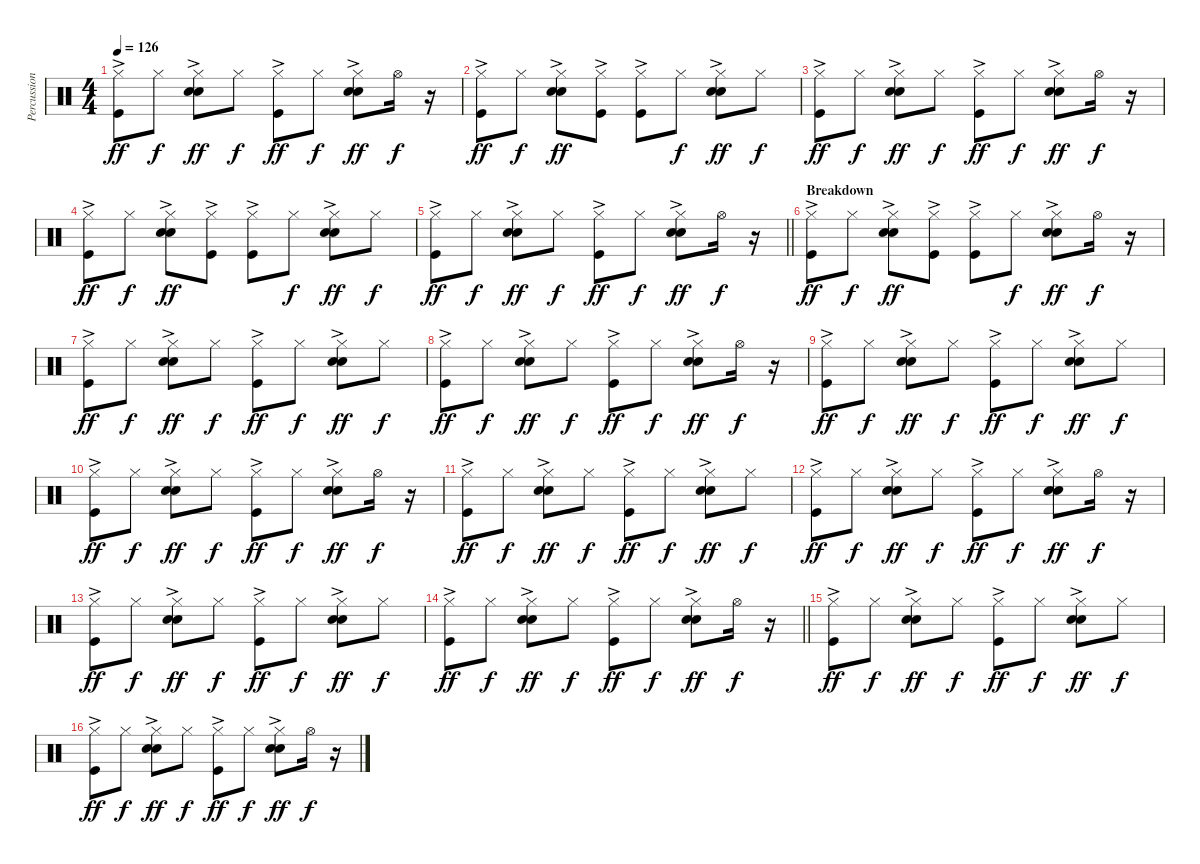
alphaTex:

\track ("Percussion" "Percussion") {instrument percussion}
\staff {score}
\articulation defaults
\ts (4 4)
\tempo 126
\clef neutral
\ks c
("Hi-Hat (closed)" "Kick (hit)"{ac}).8{dy ff} "Hi-Hat (closed)".8{dy f} ("Hi-Hat (closed)" "Hand Clap (hit)"{ac} "Snare (hit) 2"{ac}).8{dy ff} "Hi-Hat (closed)".8{dy f} ("Hi-Hat (closed)" "Kick (hit)"{ac}).8{dy ff} "Hi-Hat (closed)".8{dy f} ("Hi-Hat (closed)" "Hand Clap (hit)"{ac} "Snare (hit) 2"{ac}).8{dy ff} "Hi-Hat (open)".16{dy f} r.16 |
("Hi-Hat (closed)" "Kick (hit)"{ac}).8{dy ff} "Hi-Hat (closed)".8{dy f} ("Hi-Hat (closed)" "Hand Clap (hit)"{ac} "Snare (hit) 2"{ac}).8{dy ff} ("Hi-Hat (closed)" "Kick (hit)"{ac}).8 ("Hi-Hat (closed)" "Kick (hit)"{ac}).8 "Hi-Hat (closed)".8{dy f} ("Hi-Hat (closed)" "Hand Clap (hit)"{ac} "Snare (hit) 2"{ac}).8{dy ff} "Hi-Hat (closed)".8{dy f} |
("Hi-Hat (closed)" "Kick (hit)"{ac}).8{dy ff} "Hi-Hat (closed)".8{dy f} ("Hi-Hat (closed)" "Hand Clap (hit)"{ac} "Snare (hit) 2"{ac}).8{dy ff} "Hi-Hat (closed)".8{dy f} ("Hi-Hat (closed)" "Kick (hit)"{ac}).8{dy ff} "Hi-Hat (closed)".8{dy f} ("Hi-Hat (closed)" "Hand Clap (hit)"{ac} "Snare (hit) 2"{ac}).8{dy ff} "Hi-Hat (open)".16{dy f} r.16 |
("Hi-Hat (closed)" "Kick (hit)"{ac}).8{dy ff} "Hi-Hat (closed)".8{dy f} ("Hi-Hat (closed)" "Hand Clap (hit)"{ac} "Snare (hit) 2"{ac}).8{dy ff} ("Hi-Hat (closed)" "Kick (hit)"{ac}).8 ("Hi-Hat (closed)" "Kick (hit)"{ac}).8 "Hi-Hat (closed)".8{dy f} ("Hi-Hat (closed)" "Hand Clap (hit)"{ac} "Snare (hit) 2"{ac}).8{dy ff} "Hi-Hat (closed)".8{dy f} |
\barLineRight lightlight
("Hi-Hat (closed)" "Kick (hit)"{ac}).8{dy ff} "Hi-Hat (closed)".8{dy f} ("Hi-Hat (closed)" "Hand Clap (hit)"{ac} "Snare (hit) 2"{ac}).8{dy ff} "Hi-Hat (closed)".8{dy f} ("Hi-Hat (closed)" "Kick (hit)"{ac}).8{dy ff} "Hi-Hat (closed)".8{dy f} ("Hi-Hat (closed)" "Hand Clap (hit)"{ac} "Snare (hit) 2"{ac}).8{dy ff} "Hi-Hat (open)".16{dy f} r.16 |
\section ("" "Breakdown")
("Hi-Hat (closed)" "Kick (hit)"{ac}).8{dy ff} "Hi-Hat (closed)".8{dy f} ("Hi-Hat (closed)" "Hand Clap (hit)"{ac} "Snare (hit) 2"{ac}).8{dy ff} ("Hi-Hat (closed)" "Kick (hit)"{ac}).8 ("Hi-Hat (closed)" "Kick (hit)"{ac}).8 "Hi-Hat (closed)".8{dy f} ("Hi-Hat (closed)" "Hand Clap (hit)"{ac} "Snare (hit) 2"{ac}).8{dy ff} "Hi-Hat (open)".16{dy f} r.16 |
("Hi-Hat (closed)" "Kick (hit)"{ac}).8{dy ff} "Hi-Hat (closed)".8{dy f} ("Hi-Hat (closed)" "Hand Clap (hit)"{ac} "Snare (hit) 2").8{dy ff} "Hi-Hat (closed)".8{dy f} ("Hi-Hat (closed)" "Kick (hit)"{ac}).8{dy ff} "Hi-Hat (closed)".8{dy f} ("Hi-Hat (closed)" "Hand Clap (hit)"{ac} "Snare (hit) 2").8{dy ff} "Hi-Hat (closed)".8{dy f} |
("Hi-Hat (closed)" "Kick (hit)"{ac}).8{dy ff} "Hi-Hat (closed)".8{dy f} ("Hi-Hat (closed)" "Hand Clap (hit)"{ac} "Snare (hit) 2").8{dy ff} "Hi-Hat (closed)".8{dy f} ("Hi-Hat (closed)" "Kick (hit)"{ac}).8{dy ff} "Hi-Hat (closed)".8{dy f} ("Hi-Hat (closed)" "Hand Clap (hit)"{ac} "Snare (hit) 2").8{dy ff} "Hi-Hat (open)".16{dy f} r.16 |
("Hi-Hat (closed)" "Kick (hit)"{ac}).8{dy ff} "Hi-Hat (closed)".8{dy f} ("Hi-Hat (closed)" "Hand Clap (hit)"{ac} "Snare (hit) 2").8{dy ff} "Hi-Hat (closed)".8{dy f} ("Hi-Hat (closed)" "Kick (hit)"{ac}).8{dy ff} "Hi-Hat (closed)".8{dy f} ("Hi-Hat (closed)" "Hand Clap (hit)"{ac} "Snare (hit) 2").8{dy ff} "Hi-Hat (closed)".8{dy f} |
("Hi-Hat (closed)" "Kick (hit)"{ac}).8{dy ff} "Hi-Hat (closed)".8{dy f} ("Hi-Hat (closed)" "Hand Clap (hit)"{ac} "Snare (hit) 2").8{dy ff} "Hi-Hat (closed)".8{dy f} ("Hi-Hat (closed)" "Kick (hit)"{ac}).8{dy ff} "Hi-Hat (closed)".8{dy f} ("Hi-Hat (closed)" "Hand Clap (hit)"{ac} "Snare (hit) 2").8{dy ff} "Hi-Hat (open)".16{dy f} r.16 |
("Hi-Hat (closed)" "Kick (hit)"{ac}).8{dy ff} "Hi-Hat (closed)".8{dy f} ("Hi-Hat (closed)" "Hand Clap (hit)"{ac} "Snare (hit) 2").8{dy ff} "Hi-Hat (closed)".8{dy f} ("Hi-Hat (closed)" "Kick (hit)"{ac}).8{dy ff} "Hi-Hat (closed)".8{dy f} ("Hi-Hat (closed)" "Hand Clap (hit)"{ac} "Snare (hit) 2").8{dy ff} "Hi-Hat (closed)".8{dy f} |
("Hi-Hat (closed)" "Kick (hit)"{ac}).8{dy ff} "Hi-Hat (closed)".8{dy f} ("Hi-Hat (closed)" "Hand Clap (hit)"{ac} "Snare (hit) 2").8{dy ff} "Hi-Hat (closed)".8{dy f} ("Hi-Hat (closed)" "Kick (hit)"{ac}).8{dy ff} "Hi-Hat (closed)".8{dy f} ("Hi-Hat (closed)" "Hand Clap (hit)"{ac} "Snare (hit) 2").8{dy ff} "Hi-Hat (open)".16{dy f} r.16 |
("Hi-Hat (closed)" "Kick (hit)"{ac}).8{dy ff} "Hi-Hat (closed)".8{dy f} ("Hi-Hat (closed)" "Hand Clap (hit)"{ac} "Snare (hit) 2").8{dy ff} "Hi-Hat (closed)".8{dy f} ("Hi-Hat (closed)" "Kick (hit)"{ac}).8{dy ff} "Hi-Hat (closed)".8{dy f} ("Hi-Hat (closed)" "Hand Clap (hit)"{ac} "Snare (hit) 2").8{dy ff} "Hi-Hat (closed)".8{dy f} |
\barLineRight lightlight
("Hi-Hat (closed)" "Kick (hit)"{ac}).8{dy ff} "Hi-Hat (closed)".8{dy f} ("Hi-Hat (closed)" "Hand Clap (hit)"{ac} "Snare (hit) 2").8{dy ff} "Hi-Hat (closed)".8{dy f} ("Hi-Hat (closed)" "Kick (hit)"{ac}).8{dy ff} "Hi-Hat (closed)".8{dy f} ("Hi-Hat (closed)" "Hand Clap (hit)"{ac} "Snare (hit) 2").8{dy ff} "Hi-Hat (open)".16{dy f} r.16 |
("Hi-Hat (closed)" "Kick (hit)"{ac}).8{dy ff} "Hi-Hat (closed)".8{dy f} ("Hi-Hat (closed)" "Hand Clap (hit)"{ac} "Snare (hit) 2").8{dy ff} "Hi-Hat (closed)".8{dy f} ("Hi-Hat (closed)" "Kick (hit)"{ac}).8{dy ff} "Hi-Hat (closed)".8{dy f} ("Hi-Hat (closed)" "Hand Clap (hit)"{ac} "Snare (hit) 2").8{dy ff} "Hi-Hat (closed)".8{dy f} |
("Hi-Hat (closed)" "Kick (hit)"{ac}).8{dy ff} "Hi-Hat (closed)".8{dy f} ("Hi-Hat (closed)" "Hand Clap (hit)"{ac} "Snare (hit) 2").8{dy ff} "Hi-Hat (closed)".8{dy f} ("Hi-Hat (closed)" "Kick (hit)"{ac}).8{dy ff} "Hi-Hat (closed)".8{dy f} ("Hi-Hat (closed)" "Hand Clap (hit)"{ac} "Snare (hit) 2").8{dy ff} "Hi-Hat (open)".16{dy f} r.16
